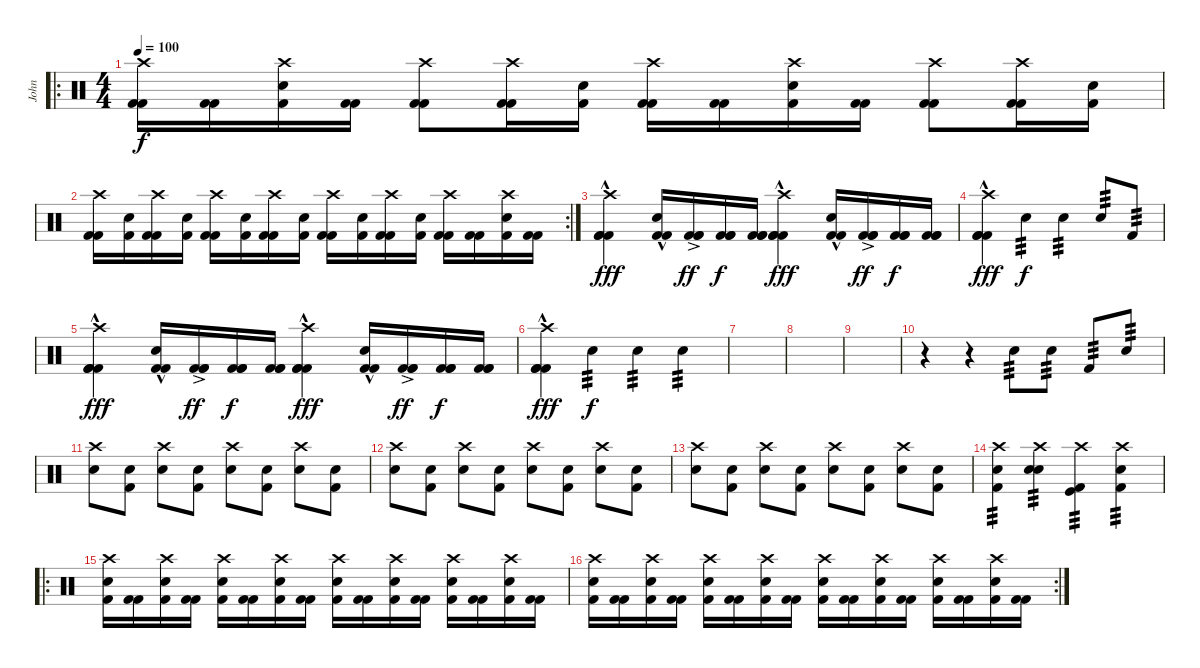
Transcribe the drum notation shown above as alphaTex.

\track ("John" "John") {instrument percussion}
\staff {score}
\articulation defaults
\ro
\ts (4 4)
\tempo 100
\clef neutral
\ks c
("Crash high (hit)" "Kick (hit) 2" "Kick (hit) 2").16{dy f} ("Kick (hit) 2" "Kick (hit) 2").16 ("Crash high (hit)" "Kick (hit) 2" "Electric Snare (hit)").16 ("Kick (hit) 2" "Kick (hit) 2").16 ("Crash high (hit)" "Kick (hit) 2" "Kick (hit) 2").8 ("Crash high (hit)" "Kick (hit) 2" "Kick (hit) 2").16 ("Kick (hit) 2" "Electric Snare (hit)").16 ("Crash high (hit)" "Kick (hit) 2" "Kick (hit) 2").16 ("Kick (hit) 2" "Kick (hit) 2").16 ("Crash high (hit)" "Kick (hit) 2" "Electric Snare (hit)").16 ("Kick (hit) 2" "Kick (hit) 2").16 ("Crash high (hit)" "Kick (hit) 2" "Kick (hit) 2").8 ("Crash high (hit)" "Kick (hit) 2" "Kick (hit) 2").16 ("Kick (hit) 2" "Electric Snare (hit)").16 |
\rc 2
("Crash high (hit)" "Kick (hit) 2" "Kick (hit) 2").16 ("Kick (hit) 2" "Electric Snare (hit)").16 ("Crash high (hit)" "Kick (hit) 2" "Kick (hit) 2").16 ("Kick (hit) 2" "Electric Snare (hit)").16 ("Crash high (hit)" "Kick (hit) 2" "Kick (hit) 2").16 ("Kick (hit) 2" "Electric Snare (hit)").16 ("Crash high (hit)" "Kick (hit) 2" "Kick (hit) 2").16 ("Kick (hit) 2" "Electric Snare (hit)").16 ("Crash high (hit)" "Kick (hit) 2" "Kick (hit) 2").16 ("Kick (hit) 2" "Electric Snare (hit)").16 ("Crash high (hit)" "Kick (hit) 2" "Kick (hit) 2").16 ("Kick (hit) 2" "Electric Snare (hit)").16 ("Crash high (hit)" "Kick (hit) 2" "Kick (hit) 2").16 ("Kick (hit) 2" "Kick (hit) 2").16 ("Crash high (hit)" "Kick (hit) 2" "Electric Snare (hit)").16 ("Kick (hit) 2" "Kick (hit) 2").16 |
("Crash high (hit)"{hac} "Kick (hit) 2"{hac} "Kick (hit) 2"{hac} "Kick (hit) 2"{hac}).4{dy fff} ("Electric Snare (hit)"{hac} "Kick (hit) 2"{hac} "Kick (hit) 2"{hac}).16 ("Kick (hit) 2"{ac} "Kick (hit) 2"{ac} "Kick (hit) 2"{ac}).16{dy ff} ("Kick (hit) 2" "Kick (hit) 2" "Kick (hit) 2").16{dy f} ("Kick (hit) 2" "Kick (hit) 2" "Kick (hit) 2").16 ("Crash high (hit)"{hac} "Kick (hit) 2"{hac} "Kick (hit) 2"{hac} "Kick (hit) 2"{hac}).4{dy fff} ("Electric Snare (hit)"{hac} "Kick (hit) 2"{hac} "Kick (hit) 2"{hac}).16 ("Kick (hit) 2"{ac} "Kick (hit) 2"{ac} "Kick (hit) 2"{ac}).16{dy ff} ("Kick (hit) 2" "Kick (hit) 2" "Kick (hit) 2").16{dy f} ("Kick (hit) 2" "Kick (hit) 2" "Kick (hit) 2").16 |
("Crash high (hit)"{hac} "Kick (hit) 2"{hac} "Kick (hit) 2"{hac} "Kick (hit) 2"{hac}).4{dy fff} "Electric Snare (hit)".4{tp 3 dy f} "Electric Snare (hit)".4{tp 3} "Electric Snare (hit)".8{tp 3} "Kick (hit) 2".8{tp 3} |
("Crash high (hit)"{hac} "Kick (hit) 2"{hac} "Kick (hit) 2"{hac} "Kick (hit) 2"{hac}).4{dy fff} ("Electric Snare (hit)"{hac} "Kick (hit) 2"{hac} "Kick (hit) 2"{hac}).16 ("Kick (hit) 2"{ac} "Kick (hit) 2"{ac} "Kick (hit) 2"{ac}).16{dy ff} ("Kick (hit) 2" "Kick (hit) 2" "Kick (hit) 2").16{dy f} ("Kick (hit) 2" "Kick (hit) 2" "Kick (hit) 2").16 ("Crash high (hit)"{hac} "Kick (hit) 2"{hac} "Kick (hit) 2"{hac} "Kick (hit) 2"{hac}).4{dy fff} ("Electric Snare (hit)"{hac} "Kick (hit) 2"{hac} "Kick (hit) 2"{hac}).16 ("Kick (hit) 2"{ac} "Kick (hit) 2"{ac} "Kick (hit) 2"{ac}).16{dy ff} ("Kick (hit) 2" "Kick (hit) 2" "Kick (hit) 2").16{dy f} ("Kick (hit) 2" "Kick (hit) 2" "Kick (hit) 2").16 |
("Crash high (hit)"{hac} "Kick (hit) 2"{hac} "Kick (hit) 2"{hac} "Kick (hit) 2"{hac}).4{dy fff} "Electric Snare (hit)".4{tp 3 dy f balance 16} "Electric Snare (hit)".4{tp 3 balance 8} "Electric Snare (hit)".4{tp 3 balance 8} |
|
|
|
r.4 r.4 "Electric Snare (hit)".8{tp 3} "Electric Snare (hit)".8{tp 3} "Kick (hit) 2".8{tp 3} "Electric Snare (hit)".8{tp 3} |
("Crash high (hit)" "Electric Snare (hit)").8 ("Electric Snare (hit)" "Kick (hit) 2").8 ("Crash high (hit)" "Electric Snare (hit)").8 ("Electric Snare (hit)" "Kick (hit) 2").8 ("Crash high (hit)" "Electric Snare (hit)").8 ("Electric Snare (hit)" "Kick (hit) 2").8 ("Crash high (hit)" "Electric Snare (hit)").8 ("Electric Snare (hit)" "Kick (hit) 2").8 |
("Crash high (hit)" "Electric Snare (hit)").8 ("Electric Snare (hit)" "Kick (hit) 2").8 ("Crash high (hit)" "Electric Snare (hit)").8 ("Electric Snare (hit)" "Kick (hit) 2").8 ("Crash high (hit)" "Electric Snare (hit)").8 ("Electric Snare (hit)" "Kick (hit) 2").8 ("Crash high (hit)" "Electric Snare (hit)").8 ("Electric Snare (hit)" "Kick (hit) 2").8 |
("Crash high (hit)" "Electric Snare (hit)").8 ("Electric Snare (hit)" "Kick (hit) 2").8 ("Crash high (hit)" "Electric Snare (hit)").8 ("Electric Snare (hit)" "Kick (hit) 2").8 ("Crash high (hit)" "Electric Snare (hit)").8 ("Electric Snare (hit)" "Kick (hit) 2").8 ("Crash high (hit)" "Electric Snare (hit)").8 ("Electric Snare (hit)" "Kick (hit) 2").8 |
("Crash high (hit)" "Electric Snare (hit)" "Kick (hit) 2").4{tp 3} ("Crash high (hit)" "Snare (hit) 2" "Electric Snare (hit)").4{tp 3} ("Crash high (hit)" "Kick (hit)" "Kick (hit) 2").4{tp 3} ("Crash high (hit)" "Electric Snare (hit)" "Kick (hit) 2").4{tp 3} |
\ro
("Crash high (hit)" "Electric Snare (hit)" "Kick (hit) 2").16 ("Kick (hit) 2" "Kick (hit) 2").16 ("Crash high (hit)" "Electric Snare (hit)" "Kick (hit) 2").16 ("Kick (hit) 2" "Kick (hit) 2").16 ("Crash high (hit)" "Electric Snare (hit)" "Kick (hit) 2").16 ("Kick (hit) 2" "Kick (hit) 2").16 ("Crash high (hit)" "Electric Snare (hit)" "Kick (hit) 2").16 ("Kick (hit) 2" "Kick (hit) 2").16 ("Crash high (hit)" "Electric Snare (hit)" "Kick (hit) 2").16 ("Kick (hit) 2" "Kick (hit) 2").16 ("Crash high (hit)" "Electric Snare (hit)" "Kick (hit) 2").16 ("Kick (hit) 2" "Kick (hit) 2").16 ("Crash high (hit)" "Electric Snare (hit)" "Kick (hit) 2").16 ("Kick (hit) 2" "Kick (hit) 2").16 ("Crash high (hit)" "Electric Snare (hit)" "Kick (hit) 2").16 ("Kick (hit) 2" "Kick (hit) 2").16 |
\rc 2
("Crash high (hit)" "Electric Snare (hit)" "Kick (hit) 2").16 ("Kick (hit) 2" "Kick (hit) 2").16 ("Crash high (hit)" "Electric Snare (hit)" "Kick (hit) 2").16 ("Kick (hit) 2" "Kick (hit) 2").16 ("Crash high (hit)" "Electric Snare (hit)" "Kick (hit) 2").16 ("Kick (hit) 2" "Kick (hit) 2").16 ("Crash high (hit)" "Electric Snare (hit)" "Kick (hit) 2").16 ("Kick (hit) 2" "Kick (hit) 2").16 ("Crash high (hit)" "Electric Snare (hit)" "Kick (hit) 2").16 ("Kick (hit) 2" "Kick (hit) 2").16 ("Crash high (hit)" "Electric Snare (hit)" "Kick (hit) 2").16 ("Kick (hit) 2" "Kick (hit) 2").16 ("Crash high (hit)" "Electric Snare (hit)" "Kick (hit) 2").16 ("Kick (hit) 2" "Kick (hit) 2").16 ("Crash high (hit)" "Electric Snare (hit)" "Kick (hit) 2").16 ("Kick (hit) 2" "Kick (hit) 2").16
